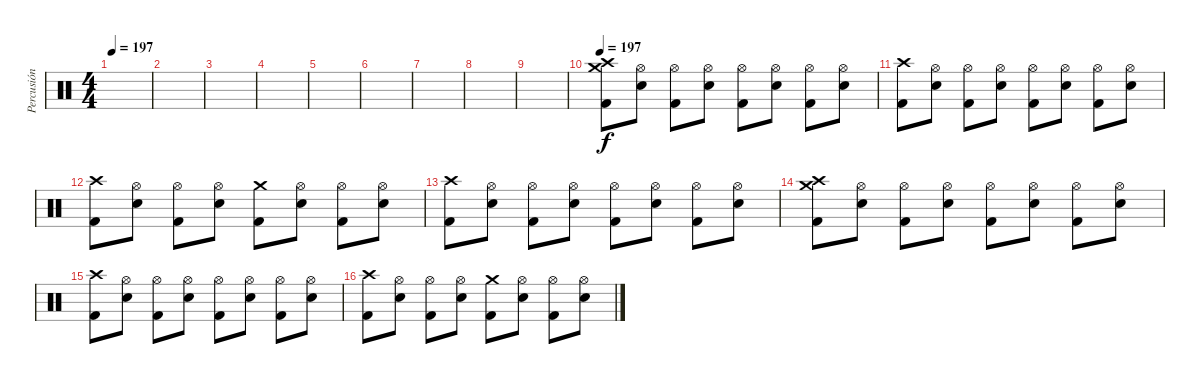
\track ("Percusión" "Percusión") {instrument percussion}
\staff {score}
\articulation defaults
\ts (4 4)
\tempo 197
\tempo 110
\tempo 197
\clef neutral
\ks c
|
|
|
|
|
|
|
|
|
\tempo 197
("Crash high (hit)" "Crash medium (hit)" "Kick (hit) 2").8 ("Hi-Hat (open)" "Electric Snare (hit)").8 ("Hi-Hat (open)" "Kick (hit) 2").8 ("Hi-Hat (open)" "Electric Snare (hit)").8 ("Hi-Hat (open)" "Kick (hit) 2").8 ("Hi-Hat (open)" "Electric Snare (hit)").8 ("Hi-Hat (open)" "Kick (hit) 2").8 ("Hi-Hat (open)" "Electric Snare (hit)").8 |
("Crash high (hit)" "Kick (hit) 2").8 ("Hi-Hat (open)" "Electric Snare (hit)").8 ("Hi-Hat (open)" "Kick (hit) 2").8 ("Hi-Hat (open)" "Electric Snare (hit)").8 ("Hi-Hat (open)" "Kick (hit) 2").8 ("Hi-Hat (open)" "Electric Snare (hit)").8 ("Hi-Hat (open)" "Kick (hit) 2").8 ("Hi-Hat (open)" "Electric Snare (hit)").8 |
("Crash high (hit)" "Kick (hit) 2").8 ("Hi-Hat (open)" "Electric Snare (hit)").8 ("Hi-Hat (open)" "Kick (hit) 2").8 ("Hi-Hat (open)" "Electric Snare (hit)").8 ("Crash medium (hit)" "Kick (hit) 2").8 ("Hi-Hat (open)" "Electric Snare (hit)").8 ("Hi-Hat (open)" "Kick (hit) 2").8 ("Hi-Hat (open)" "Electric Snare (hit)").8 |
("Crash high (hit)" "Kick (hit) 2").8 ("Hi-Hat (open)" "Electric Snare (hit)").8 ("Hi-Hat (open)" "Kick (hit) 2").8 ("Hi-Hat (open)" "Electric Snare (hit)").8 ("Hi-Hat (open)" "Kick (hit) 2").8 ("Hi-Hat (open)" "Electric Snare (hit)").8 ("Hi-Hat (open)" "Kick (hit) 2").8 ("Hi-Hat (open)" "Electric Snare (hit)").8 |
("Crash high (hit)" "Crash medium (hit)" "Kick (hit) 2").8 ("Hi-Hat (open)" "Electric Snare (hit)").8 ("Hi-Hat (open)" "Kick (hit) 2").8 ("Hi-Hat (open)" "Electric Snare (hit)").8 ("Hi-Hat (open)" "Kick (hit) 2").8 ("Hi-Hat (open)" "Electric Snare (hit)").8 ("Hi-Hat (open)" "Kick (hit) 2").8 ("Hi-Hat (open)" "Electric Snare (hit)").8 |
("Crash high (hit)" "Kick (hit) 2").8 ("Hi-Hat (open)" "Electric Snare (hit)").8 ("Hi-Hat (open)" "Kick (hit) 2").8 ("Hi-Hat (open)" "Electric Snare (hit)").8 ("Hi-Hat (open)" "Kick (hit) 2").8 ("Hi-Hat (open)" "Electric Snare (hit)").8 ("Hi-Hat (open)" "Kick (hit) 2").8 ("Hi-Hat (open)" "Electric Snare (hit)").8 |
("Crash high (hit)" "Kick (hit) 2").8 ("Hi-Hat (open)" "Electric Snare (hit)").8 ("Hi-Hat (open)" "Kick (hit) 2").8 ("Hi-Hat (open)" "Electric Snare (hit)").8 ("Crash medium (hit)" "Kick (hit) 2").8 ("Hi-Hat (open)" "Electric Snare (hit)").8 ("Hi-Hat (open)" "Kick (hit) 2").8 ("Hi-Hat (open)" "Electric Snare (hit)").8
